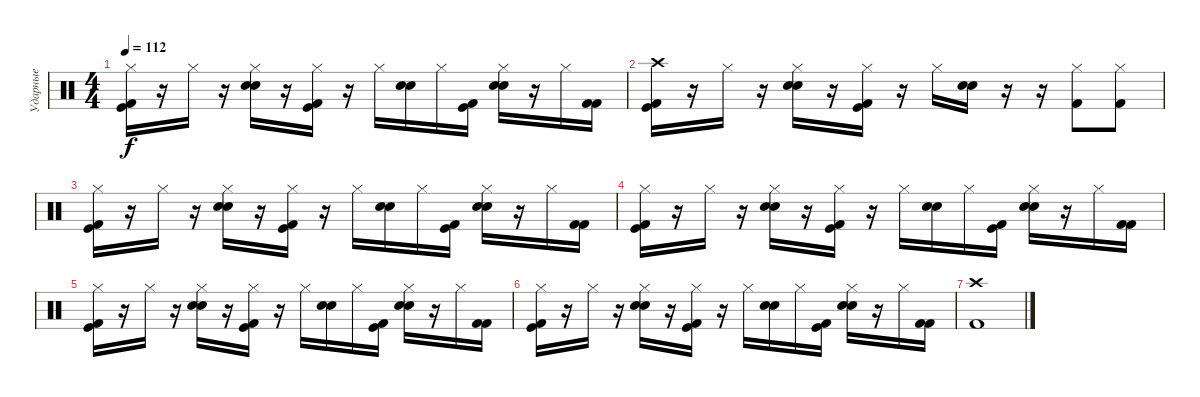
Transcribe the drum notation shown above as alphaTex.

\track ("Ударные" "Ударные") {instrument percussion}
\staff {score}
\articulation defaults
\ts (4 4)
\tempo 112
\clef neutral
\ks c
("Hi-Hat (closed)" "Kick (hit)" "Kick (hit) 2").16{dy f} r.16 "Hi-Hat (closed)".16 r.16 ("Hi-Hat (closed)" "Electric Snare (hit)" "Snare (hit) 2").16 r.16 ("Hi-Hat (closed)" "Kick (hit)" "Kick (hit) 2").16 r.16 "Hi-Hat (closed)".16 ("Snare (hit) 2" "Electric Snare (hit)").16 "Hi-Hat (closed)".16 ("Kick (hit)" "Kick (hit) 2").16 ("Hi-Hat (closed)" "Electric Snare (hit)" "Snare (hit) 2").16 r.16 "Hi-Hat (closed)".16 ("Kick (hit) 2" "Kick (hit) 2").16 |
("Crash high (hit)" "Kick (hit)" "Kick (hit) 2").16 r.16 "Hi-Hat (closed)".16 r.16 ("Hi-Hat (closed)" "Electric Snare (hit)" "Snare (hit) 2").16 r.16 ("Hi-Hat (closed)" "Kick (hit)" "Kick (hit) 2").16 r.16 "Hi-Hat (closed)".16 ("Snare (hit) 2" "Electric Snare (hit)").16 r.16 r.16 ("Kick (hit) 2" "Hi-Hat (closed)").8 ("Kick (hit) 2" "Hi-Hat (closed)").8 |
("Hi-Hat (closed)" "Kick (hit)" "Kick (hit) 2").16 r.16 "Hi-Hat (closed)".16 r.16 ("Hi-Hat (closed)" "Electric Snare (hit)" "Snare (hit) 2").16 r.16 ("Hi-Hat (closed)" "Kick (hit)" "Kick (hit) 2").16 r.16 "Hi-Hat (closed)".16 ("Snare (hit) 2" "Electric Snare (hit)").16 "Hi-Hat (closed)".16 ("Kick (hit)" "Kick (hit) 2").16 ("Hi-Hat (closed)" "Electric Snare (hit)" "Snare (hit) 2").16 r.16 "Hi-Hat (closed)".16 ("Kick (hit) 2" "Kick (hit) 2").16 |
("Hi-Hat (closed)" "Kick (hit)" "Kick (hit) 2").16 r.16 "Hi-Hat (closed)".16 r.16 ("Hi-Hat (closed)" "Electric Snare (hit)" "Snare (hit) 2").16 r.16 ("Hi-Hat (closed)" "Kick (hit)" "Kick (hit) 2").16 r.16 "Hi-Hat (closed)".16 ("Snare (hit) 2" "Electric Snare (hit)").16 "Hi-Hat (closed)".16 ("Kick (hit)" "Kick (hit) 2").16 ("Hi-Hat (closed)" "Electric Snare (hit)" "Snare (hit) 2").16 r.16 "Hi-Hat (closed)".16 ("Kick (hit) 2" "Kick (hit) 2").16 |
("Hi-Hat (closed)" "Kick (hit)" "Kick (hit) 2").16 r.16 "Hi-Hat (closed)".16 r.16 ("Hi-Hat (closed)" "Electric Snare (hit)" "Snare (hit) 2").16 r.16 ("Hi-Hat (closed)" "Kick (hit)" "Kick (hit) 2").16 r.16 "Hi-Hat (closed)".16 ("Snare (hit) 2" "Electric Snare (hit)").16 "Hi-Hat (closed)".16 ("Kick (hit)" "Kick (hit) 2").16 ("Hi-Hat (closed)" "Electric Snare (hit)" "Snare (hit) 2").16 r.16 "Hi-Hat (closed)".16 ("Kick (hit) 2" "Kick (hit) 2").16 |
("Hi-Hat (closed)" "Kick (hit)" "Kick (hit) 2").16 r.16 "Hi-Hat (closed)".16 r.16 ("Hi-Hat (closed)" "Electric Snare (hit)" "Snare (hit) 2").16 r.16 ("Hi-Hat (closed)" "Kick (hit)" "Kick (hit) 2").16 r.16 "Hi-Hat (closed)".16 ("Snare (hit) 2" "Electric Snare (hit)").16 "Hi-Hat (closed)".16 ("Kick (hit)" "Kick (hit) 2").16 ("Hi-Hat (closed)" "Electric Snare (hit)" "Snare (hit) 2").16 r.16 "Hi-Hat (closed)".16 ("Kick (hit) 2" "Kick (hit) 2").16 |
("Kick (hit) 2" "Crash high (hit)").1
